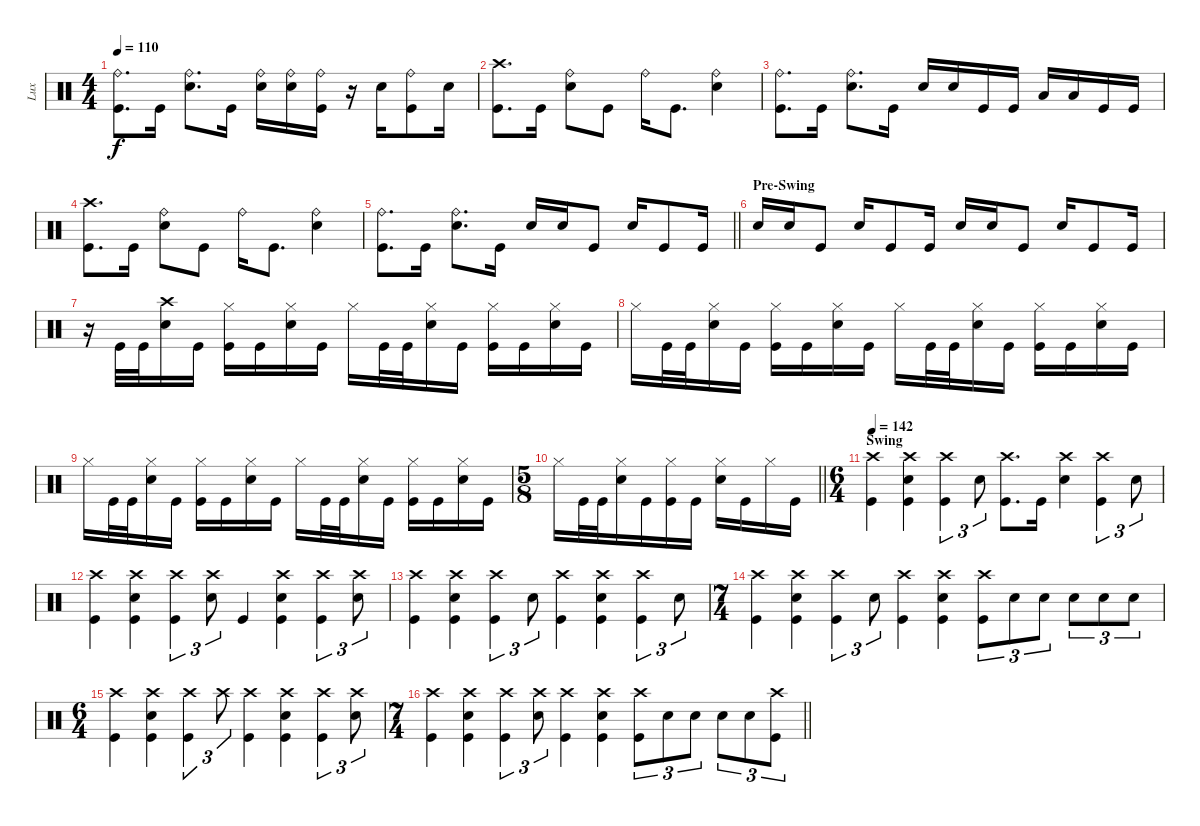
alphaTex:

\track ("Lux" "Lux") {instrument percussion}
\staff {score}
\articulation defaults
\ts (4 4)
\tempo 110
\clef neutral
\ks c
("Ride (bell)" "Kick (hit)").8{d dy f} "Kick (hit)".16 ("Ride (bell)" "Snare (hit) 2").8{d} "Kick (hit)".16 ("Ride (bell)" "Snare (hit) 2").16 ("Ride (bell)" "Snare (hit) 2").16 ("Ride (bell)" "Kick (hit)").16 r.16 "Snare (hit) 2".16 ("Ride (bell)" "Kick (hit)").8 "Snare (hit) 2".16 |
("Crash high (hit)" "Kick (hit)").8{d} "Kick (hit)".16 ("Ride (bell)" "Snare (hit) 2").8 "Kick (hit)".8 "Ride (bell)".16 "Kick (hit)".8{d} ("Ride (bell)" "Snare (hit) 2").4 |
("Ride (bell)" "Kick (hit)").8{d} "Kick (hit)".16 ("Ride (bell)" "Snare (hit) 2").8{d} "Kick (hit)".16 "Snare (hit) 2".16 "Snare (hit) 2".16 "Kick (hit)".16 "Kick (hit)".16 "Low Tom (hit)".16 "Low Tom (hit)".16 "Kick (hit)".16 "Kick (hit)".16 |
("Crash high (hit)" "Kick (hit)").8{d} "Kick (hit)".16 ("Ride (bell)" "Snare (hit) 2").8 "Kick (hit)".8 "Ride (bell)".16 "Kick (hit)".8{d} ("Ride (bell)" "Snare (hit) 2").4 |
\barLineRight lightlight
("Ride (bell)" "Kick (hit)").8{d} "Kick (hit)".16 ("Ride (bell)" "Snare (hit) 2").8{d} "Kick (hit)".16 "Snare (hit) 2".16 "Snare (hit) 2".16 "Kick (hit)".8 "Snare (hit) 2".16 "Kick (hit)".8 "Kick (hit)".16 |
\section ("" "Pre-Swing")
"Snare (hit) 2".16 "Snare (hit) 2".16 "Kick (hit)".8 "Snare (hit) 2".16 "Kick (hit)".8 "Kick (hit)".16 "Snare (hit) 2".16 "Snare (hit) 2".16 "Kick (hit)".8 "Snare (hit) 2".16 "Kick (hit)".8 "Kick (hit)".16 |
r.16 "Kick (hit)".32 "Kick (hit)".32 ("Crash high (hit)" "Snare (hit) 2").16 "Kick (hit)".16 ("Hi-Hat (closed)" "Kick (hit)").16 "Kick (hit)".16 ("Hi-Hat (closed)" "Snare (hit) 2").16 "Kick (hit)".16 "Hi-Hat (closed)".16 "Kick (hit)".32 "Kick (hit)".32 ("Hi-Hat (closed)" "Snare (hit) 2").16 "Kick (hit)".16 ("Hi-Hat (closed)" "Kick (hit)").16 "Kick (hit)".16 ("Hi-Hat (closed)" "Snare (hit) 2").16 "Kick (hit)".16 |
"Hi-Hat (closed)".16 "Kick (hit)".32 "Kick (hit)".32 ("Hi-Hat (closed)" "Snare (hit) 2").16 "Kick (hit)".16 ("Hi-Hat (closed)" "Kick (hit)").16 "Kick (hit)".16 ("Hi-Hat (closed)" "Snare (hit) 2").16 "Kick (hit)".16 "Hi-Hat (closed)".16 "Kick (hit)".32 "Kick (hit)".32 ("Hi-Hat (closed)" "Snare (hit) 2").16 "Kick (hit)".16 ("Hi-Hat (closed)" "Kick (hit)").16 "Kick (hit)".16 ("Hi-Hat (closed)" "Snare (hit) 2").16 "Kick (hit)".16 |
"Hi-Hat (closed)".16 "Kick (hit)".32 "Kick (hit)".32 ("Hi-Hat (closed)" "Snare (hit) 2").16 "Kick (hit)".16 ("Hi-Hat (closed)" "Kick (hit)").16 "Kick (hit)".16 ("Hi-Hat (closed)" "Snare (hit) 2").16 "Kick (hit)".16 "Hi-Hat (closed)".16 "Kick (hit)".32 "Kick (hit)".32 ("Hi-Hat (closed)" "Snare (hit) 2").16 "Kick (hit)".16 ("Hi-Hat (closed)" "Kick (hit)").16 "Kick (hit)".16 ("Hi-Hat (closed)" "Snare (hit) 2").16 "Kick (hit)".16 |
\ts (5 8)
\barLineRight lightlight "Hi-Hat (closed)".16 "Kick (hit)".32 "Kick (hit)".32
("Hi-Hat (closed)" "Snare (hit) 2").16 "Kick (hit)".16 ("Hi-Hat (closed)" "Kick (hit)").16 "Kick (hit)".16 ("Hi-Hat (closed)" "Snare (hit) 2").16 "Kick (hit)".16 "Hi-Hat (closed)".16 "Kick (hit)".16 |
\ts (6 4)
\section ("" "Swing")
\tempo 142
("Crash high (hit)" "Kick (hit)").4 ("Crash high (hit)" "Snare (hit) 2" "Kick (hit)").4 ("Crash high (hit)" "Kick (hit)").4{tu (3 2)} "Snare (hit) 2".8{tu (3 2)} ("Crash high (hit)" "Kick (hit)").8{d} "Kick (hit)".16 ("Crash high (hit)" "Snare (hit) 2").4 ("Crash high (hit)" "Kick (hit)").4{tu (3 2)} "Snare (hit) 2".8{tu (3 2)} |
("Crash high (hit)" "Kick (hit)").4 ("Crash high (hit)" "Snare (hit) 2" "Kick (hit)").4 ("Crash high (hit)" "Kick (hit)").4{tu (3 2)} ("Crash high (hit)" "Snare (hit) 2").8{tu (3 2)} "Kick (hit)".4 ("Crash high (hit)" "Snare (hit) 2" "Kick (hit)").4 ("Crash high (hit)" "Kick (hit)").4{tu (3 2)} ("Crash high (hit)" "Snare (hit) 2").8{tu (3 2)} |
("Crash high (hit)" "Kick (hit)").4 ("Crash high (hit)" "Snare (hit) 2" "Kick (hit)").4 ("Crash high (hit)" "Kick (hit)").4{tu (3 2)} "Snare (hit) 2".8{tu (3 2)} ("Crash high (hit)" "Kick (hit)").4 ("Crash high (hit)" "Snare (hit) 2" "Kick (hit)").4 ("Crash high (hit)" "Kick (hit)").4{tu (3 2)} "Snare (hit) 2".8{tu (3 2)} |
\ts (7 4)
("Crash high (hit)" "Kick (hit)").4 ("Crash high (hit)" "Snare (hit) 2" "Kick (hit)").4 ("Crash high (hit)" "Kick (hit)").4{tu (3 2)} "Snare (hit) 2".8{tu (3 2)} ("Crash high (hit)" "Kick (hit)").4 ("Crash high (hit)" "Snare (hit) 2" "Kick (hit)").4 ("Crash high (hit)" "Kick (hit)").8{tu (3 2)} "Snare (hit) 2".8{tu (3 2)} "Snare (hit) 2".8{tu (3 2)} "Snare (hit) 2".8{tu (3 2)} "Snare (hit) 2".8{tu (3 2)} "Snare (hit) 2".8{tu (3 2)} |
\ts (6 4)
("Crash high (hit)" "Kick (hit)").4 ("Crash high (hit)" "Snare (hit) 2" "Kick (hit)").4 ("Crash high (hit)" "Kick (hit)").4{tu (3 2)} "Crash high (hit)".8{tu (3 2)} ("Crash high (hit)" "Kick (hit)").4 ("Crash high (hit)" "Snare (hit) 2" "Kick (hit)").4 ("Crash high (hit)" "Kick (hit)").4{tu (3 2)} ("Crash high (hit)" "Snare (hit) 2").8{tu (3 2)} |
\ts (7 4)
\barLineRight lightlight
("Crash high (hit)" "Kick (hit)").4 ("Crash high (hit)" "Snare (hit) 2" "Kick (hit)").4 ("Crash high (hit)" "Kick (hit)").4{tu (3 2)} ("Crash high (hit)" "Snare (hit) 2").8{tu (3 2)} ("Crash high (hit)" "Kick (hit)").4 ("Crash high (hit)" "Snare (hit) 2" "Kick (hit)").4 ("Crash high (hit)" "Kick (hit)").8{tu (3 2)} "Snare (hit) 2".8{tu (3 2)} "Snare (hit) 2".8{tu (3 2)} "Snare (hit) 2".8{tu (3 2)} "Snare (hit) 2".8{tu (3 2)} ("Crash high (hit)" "Kick (hit)").8{tu (3 2)}
